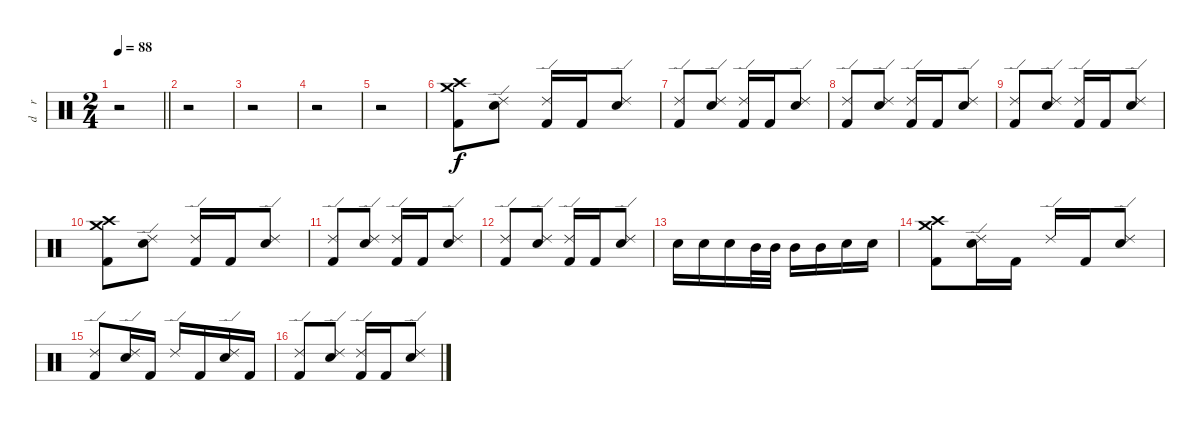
\track ("d    r     u    m    s" "d    r    ") {instrument percussion}
\staff {score}
\articulation defaults
\ts (2 4)
\tempo 88
\clef neutral
\barLineRight lightlight
\ks c
r.2{dy f} |
r.2 |
r.2 |
r.2 |
r.2 |
("Crash high (hit)" "Crash medium (hit)" "Kick (hit) 2").8 ("Ride (edge) 2" "Electric Snare (hit)").8 ("Ride (edge) 2" "Kick (hit) 2").16 "Kick (hit) 2".16 ("Ride (edge) 2" "Electric Snare (hit)").8 |
("Ride (edge) 2" "Kick (hit) 2").8 ("Ride (edge) 2" "Electric Snare (hit)").8 ("Ride (edge) 2" "Kick (hit) 2").16 "Kick (hit) 2".16 ("Ride (edge) 2" "Electric Snare (hit)").8 |
("Ride (edge) 2" "Kick (hit) 2").8 ("Ride (edge) 2" "Electric Snare (hit)").8 ("Ride (edge) 2" "Kick (hit) 2").16 "Kick (hit) 2".16 ("Ride (edge) 2" "Electric Snare (hit)").8 |
("Ride (edge) 2" "Kick (hit) 2").8 ("Ride (edge) 2" "Electric Snare (hit)").8 ("Ride (edge) 2" "Kick (hit) 2").16 "Kick (hit) 2".16 ("Ride (edge) 2" "Electric Snare (hit)").8 |
("Crash high (hit)" "Crash medium (hit)" "Kick (hit) 2").8 ("Ride (edge) 2" "Electric Snare (hit)").8 ("Ride (edge) 2" "Kick (hit) 2").16 "Kick (hit) 2".16 ("Ride (edge) 2" "Electric Snare (hit)").8 |
("Ride (edge) 2" "Kick (hit) 2").8 ("Ride (edge) 2" "Electric Snare (hit)").8 ("Ride (edge) 2" "Kick (hit) 2").16 "Kick (hit) 2".16 ("Ride (edge) 2" "Electric Snare (hit)").8 |
("Ride (edge) 2" "Kick (hit) 2").8 ("Ride (edge) 2" "Electric Snare (hit)").8 ("Ride (edge) 2" "Kick (hit) 2").16 "Kick (hit) 2".16 ("Ride (edge) 2" "Electric Snare (hit)").8 |
"Electric Snare (hit)".16 "Electric Snare (hit)".16 "Electric Snare (hit)".16 "Mid Tom (hit)".32 "Mid Tom (hit)".32 "Mid Tom (hit)".16 "Mid Tom (hit)".16 "Electric Snare (hit)".16 "Electric Snare (hit)".16 |
("Crash high (hit)" "Crash medium (hit)" "Kick (hit) 2").8 ("Ride (edge) 2" "Electric Snare (hit)").16 "Kick (hit) 2".16 "Ride (edge) 2".16 "Kick (hit) 2".16 ("Ride (edge) 2" "Electric Snare (hit)").8 |
("Ride (edge) 2" "Kick (hit) 2").8 ("Ride (edge) 2" "Electric Snare (hit)").16 "Kick (hit) 2".16 "Ride (edge) 2".16 "Kick (hit) 2".16 ("Ride (edge) 2" "Electric Snare (hit)").16 "Kick (hit) 2".16 |
("Ride (edge) 2" "Kick (hit) 2").8 ("Ride (edge) 2" "Electric Snare (hit)").8 ("Ride (edge) 2" "Kick (hit) 2").16 "Kick (hit) 2".16 ("Ride (edge) 2" "Electric Snare (hit)").8
